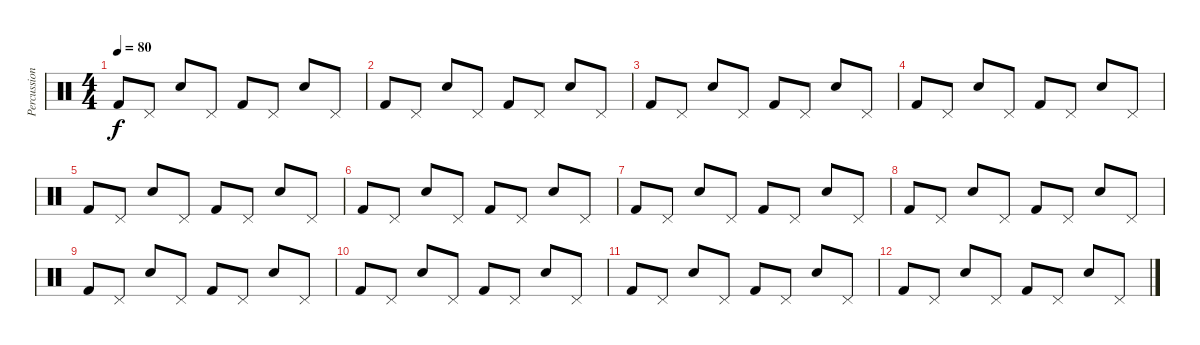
\track ("Percussion" "Percussion") {instrument percussion}
\staff {score}
\articulation defaults
\ts (4 4)
\tempo 80
\clef neutral
\ks c "Kick (hit) 2".8{dy f} "Pedal Hi-Hat (hit)".8 "Electric Snare (hit)".8 "Pedal Hi-Hat (hit)".8 "Kick (hit) 2".8 "Pedal Hi-Hat (hit)".8 "Electric Snare (hit)".8 "Pedal Hi-Hat (hit)".8
|
"Kick (hit) 2".8 "Pedal Hi-Hat (hit)".8 "Electric Snare (hit)".8 "Pedal Hi-Hat (hit)".8 "Kick (hit) 2".8 "Pedal Hi-Hat (hit)".8 "Electric Snare (hit)".8 "Pedal Hi-Hat (hit)".8 |
"Kick (hit) 2".8 "Pedal Hi-Hat (hit)".8 "Electric Snare (hit)".8 "Pedal Hi-Hat (hit)".8 "Kick (hit) 2".8 "Pedal Hi-Hat (hit)".8 "Electric Snare (hit)".8 "Pedal Hi-Hat (hit)".8 |
"Kick (hit) 2".8 "Pedal Hi-Hat (hit)".8 "Electric Snare (hit)".8 "Pedal Hi-Hat (hit)".8 "Kick (hit) 2".8 "Pedal Hi-Hat (hit)".8 "Electric Snare (hit)".8 "Pedal Hi-Hat (hit)".8 |
"Kick (hit) 2".8 "Pedal Hi-Hat (hit)".8 "Electric Snare (hit)".8 "Pedal Hi-Hat (hit)".8 "Kick (hit) 2".8 "Pedal Hi-Hat (hit)".8 "Electric Snare (hit)".8 "Pedal Hi-Hat (hit)".8 |
"Kick (hit) 2".8 "Pedal Hi-Hat (hit)".8 "Electric Snare (hit)".8 "Pedal Hi-Hat (hit)".8 "Kick (hit) 2".8 "Pedal Hi-Hat (hit)".8 "Electric Snare (hit)".8 "Pedal Hi-Hat (hit)".8 |
"Kick (hit) 2".8 "Pedal Hi-Hat (hit)".8 "Electric Snare (hit)".8 "Pedal Hi-Hat (hit)".8 "Kick (hit) 2".8 "Pedal Hi-Hat (hit)".8 "Electric Snare (hit)".8 "Pedal Hi-Hat (hit)".8 |
"Kick (hit) 2".8 "Pedal Hi-Hat (hit)".8 "Electric Snare (hit)".8 "Pedal Hi-Hat (hit)".8 "Kick (hit) 2".8 "Pedal Hi-Hat (hit)".8 "Electric Snare (hit)".8 "Pedal Hi-Hat (hit)".8 |
"Kick (hit) 2".8 "Pedal Hi-Hat (hit)".8 "Electric Snare (hit)".8 "Pedal Hi-Hat (hit)".8 "Kick (hit) 2".8 "Pedal Hi-Hat (hit)".8 "Electric Snare (hit)".8 "Pedal Hi-Hat (hit)".8 |
"Kick (hit) 2".8 "Pedal Hi-Hat (hit)".8 "Electric Snare (hit)".8 "Pedal Hi-Hat (hit)".8 "Kick (hit) 2".8 "Pedal Hi-Hat (hit)".8 "Electric Snare (hit)".8 "Pedal Hi-Hat (hit)".8 |
"Kick (hit) 2".8 "Pedal Hi-Hat (hit)".8 "Electric Snare (hit)".8 "Pedal Hi-Hat (hit)".8 "Kick (hit) 2".8 "Pedal Hi-Hat (hit)".8 "Electric Snare (hit)".8 "Pedal Hi-Hat (hit)".8 |
"Kick (hit) 2".8 "Pedal Hi-Hat (hit)".8 "Electric Snare (hit)".8 "Pedal Hi-Hat (hit)".8 "Kick (hit) 2".8 "Pedal Hi-Hat (hit)".8 "Electric Snare (hit)".8 "Pedal Hi-Hat (hit)".8
